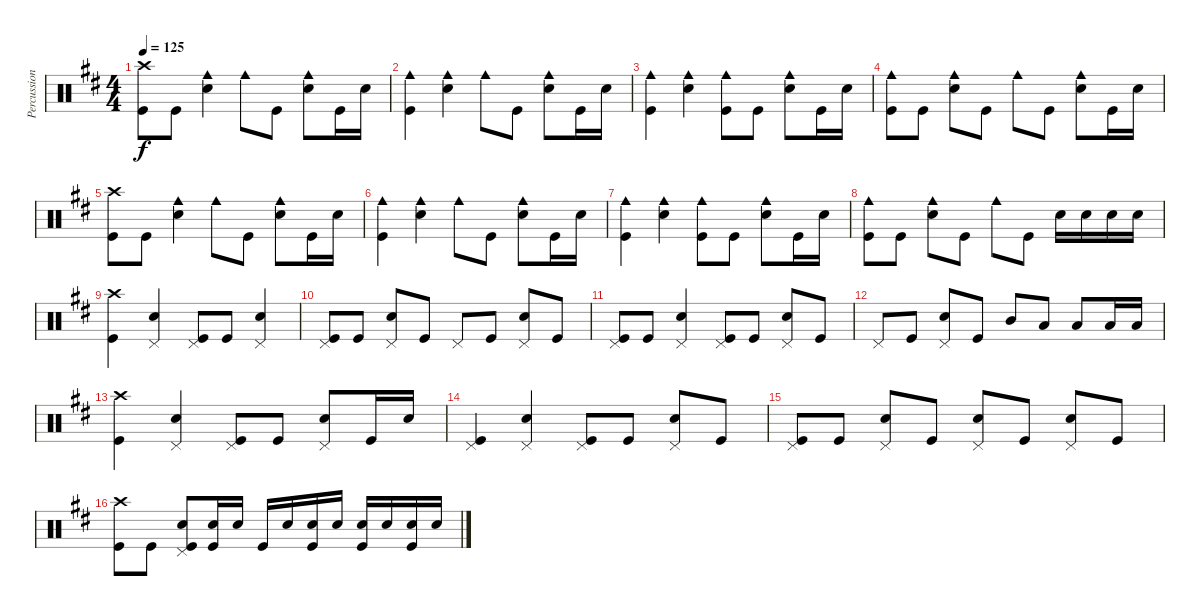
\track ("Percussion" "Percussion") {instrument percussion}
\staff {score}
\articulation defaults
\ts (4 4)
\tempo 125
\clef neutral
\ks d
("Crash high (hit)" "Kick (hit)").8{dy f} "Kick (hit)".8 ("Cowbell medium (hit)" "Snare (hit) 2").4 "Cowbell medium (hit)".8 "Kick (hit)".8 ("Cowbell medium (hit)" "Snare (hit) 2").8 "Kick (hit)".16 "Snare (hit) 2".16 |
("Cowbell medium (hit)" "Kick (hit)").4 ("Cowbell medium (hit)" "Snare (hit) 2").4 "Cowbell medium (hit)".8 "Kick (hit)".8 ("Cowbell medium (hit)" "Snare (hit) 2").8 "Kick (hit)".16 "Snare (hit) 2".16 |
("Cowbell medium (hit)" "Kick (hit)").4 ("Cowbell medium (hit)" "Snare (hit) 2").4 ("Cowbell medium (hit)" "Kick (hit)").8 "Kick (hit)".8 ("Cowbell medium (hit)" "Snare (hit) 2").8 "Kick (hit)".16 "Snare (hit) 2".16 |
("Cowbell medium (hit)" "Kick (hit)").8 "Kick (hit)".8 ("Cowbell medium (hit)" "Snare (hit) 2").8 "Kick (hit)".8 "Cowbell medium (hit)".8 "Kick (hit)".8 ("Cowbell medium (hit)" "Snare (hit) 2").8 "Kick (hit)".16 "Snare (hit) 2".16 |
("Crash high (hit)" "Kick (hit)").8 "Kick (hit)".8 ("Cowbell medium (hit)" "Snare (hit) 2").4 "Cowbell medium (hit)".8 "Kick (hit)".8 ("Cowbell medium (hit)" "Snare (hit) 2").8 "Kick (hit)".16 "Snare (hit) 2".16 |
("Cowbell medium (hit)" "Kick (hit)").4 ("Cowbell medium (hit)" "Snare (hit) 2").4 "Cowbell medium (hit)".8 "Kick (hit)".8 ("Cowbell medium (hit)" "Snare (hit) 2").8 "Kick (hit)".16 "Snare (hit) 2".16 |
("Cowbell medium (hit)" "Kick (hit)").4 ("Cowbell medium (hit)" "Snare (hit) 2").4 ("Cowbell medium (hit)" "Kick (hit)").8 "Kick (hit)".8 ("Cowbell medium (hit)" "Snare (hit) 2").8 "Kick (hit)".16 "Snare (hit) 2".16 |
("Cowbell medium (hit)" "Kick (hit)").8 "Kick (hit)".8 ("Cowbell medium (hit)" "Snare (hit) 2").8 "Kick (hit)".8 "Cowbell medium (hit)".8 "Kick (hit)".8 "Snare (hit) 2".16 "Snare (hit) 2".16 "Snare (hit) 2".16 "Snare (hit) 2".16 |
("Crash high (hit)" "Kick (hit)").4 ("Pedal Hi-Hat (hit)" "Snare (hit) 2").4 ("Pedal Hi-Hat (hit)" "Kick (hit)").8 "Kick (hit)".8 ("Pedal Hi-Hat (hit)" "Snare (hit) 2").4 |
("Pedal Hi-Hat (hit)" "Kick (hit)").8 "Kick (hit)".8 ("Pedal Hi-Hat (hit)" "Snare (hit) 2").8 "Kick (hit)".8 "Pedal Hi-Hat (hit)".8 "Kick (hit)".8 ("Pedal Hi-Hat (hit)" "Snare (hit) 2").8 "Kick (hit)".8 |
("Pedal Hi-Hat (hit)" "Kick (hit)").8 "Kick (hit)".8 ("Pedal Hi-Hat (hit)" "Snare (hit) 2").4 ("Pedal Hi-Hat (hit)" "Kick (hit)").8 "Kick (hit)".8 ("Pedal Hi-Hat (hit)" "Snare (hit) 2").8 "Kick (hit)".8 |
"Pedal Hi-Hat (hit)".8 "Kick (hit)".8 ("Pedal Hi-Hat (hit)" "Snare (hit) 2").8 "Kick (hit)".8 "Mid Tom (hit)".8 "Low Tom (hit)".8 "Low Tom (hit)".8 "Low Tom (hit)".16 "Low Tom (hit)".16 |
("Crash high (hit)" "Kick (hit)").4 ("Pedal Hi-Hat (hit)" "Snare (hit) 2").4 ("Pedal Hi-Hat (hit)" "Kick (hit)").8 "Kick (hit)".8 ("Pedal Hi-Hat (hit)" "Snare (hit) 2").8 "Kick (hit)".16 "Snare (hit) 2".16 |
("Pedal Hi-Hat (hit)" "Kick (hit)").4 ("Pedal Hi-Hat (hit)" "Snare (hit) 2").4 ("Pedal Hi-Hat (hit)" "Kick (hit)").8 "Kick (hit)".8 ("Pedal Hi-Hat (hit)" "Snare (hit) 2").8 "Kick (hit)".8 |
("Pedal Hi-Hat (hit)" "Kick (hit)").8 "Kick (hit)".8 ("Pedal Hi-Hat (hit)" "Snare (hit) 2").8 "Kick (hit)".8 ("Pedal Hi-Hat (hit)" "Snare (hit) 2").8 "Kick (hit)".8 ("Pedal Hi-Hat (hit)" "Snare (hit) 2").8 "Kick (hit)".8 |
("Crash high (hit)" "Kick (hit)").8 "Kick (hit)".8 ("Pedal Hi-Hat (hit)" "Snare (hit) 2" "Kick (hit)").8 ("Snare (hit) 2" "Kick (hit)").16 "Snare (hit) 2".16 "Kick (hit)".16 "Snare (hit) 2".16 ("Snare (hit) 2" "Kick (hit)").16 "Snare (hit) 2".16 ("Snare (hit) 2" "Kick (hit)").16 "Snare (hit) 2".16 ("Snare (hit) 2" "Kick (hit)").16 "Snare (hit) 2".16
